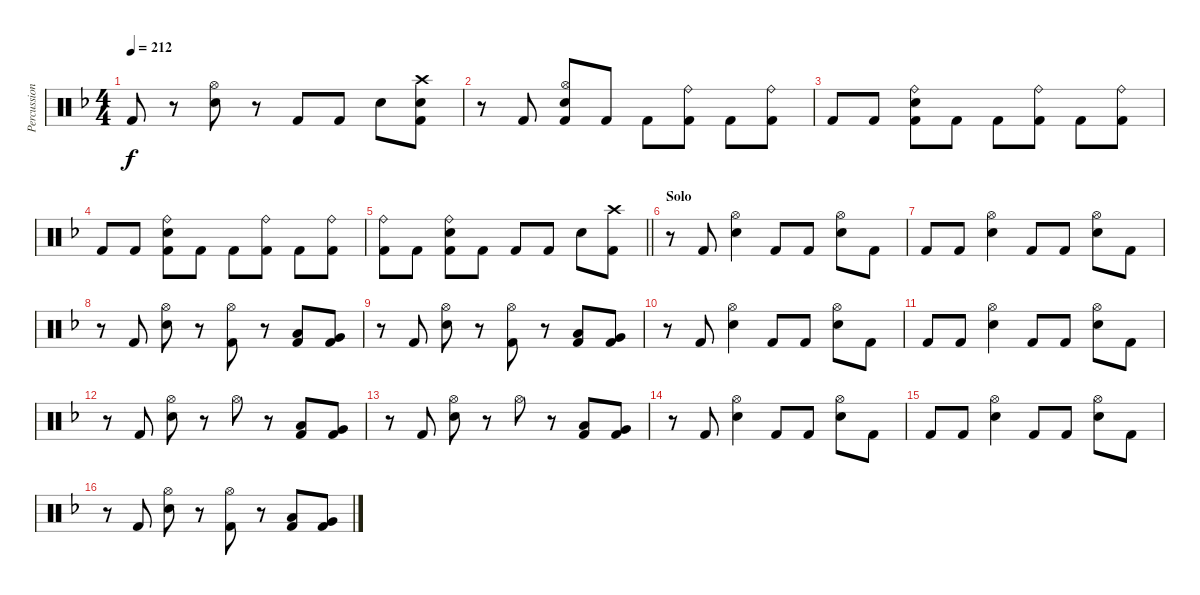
\track ("Percussion" "Percussion") {instrument percussion}
\staff {score}
\articulation defaults
\ts (4 4)
\tempo 212
\clef neutral
\ks dminor "Kick (hit) 2".8{dy f}
r.8 ("Hi-Hat (open)" "Electric Snare (hit)").8 r.8 "Kick (hit) 2".8 "Kick (hit) 2".8 "Electric Snare (hit)".8 ("Crash high (hit)" "Electric Snare (hit)" "Kick (hit) 2").8 |
r.8 "Kick (hit) 2".8 ("Hi-Hat (open)" "Electric Snare (hit)" "Kick (hit) 2").8 "Kick (hit) 2".8 "Kick (hit) 2".8 ("Ride (bell)" "Kick (hit) 2").8 "Kick (hit) 2".8 ("Ride (bell)" "Kick (hit) 2").8 |
"Kick (hit) 2".8 "Kick (hit) 2".8 ("Ride (bell)" "Electric Snare (hit)" "Kick (hit) 2").8 "Kick (hit) 2".8 "Kick (hit) 2".8 ("Ride (bell)" "Kick (hit) 2").8 "Kick (hit) 2".8 ("Ride (bell)" "Kick (hit) 2").8 |
"Kick (hit) 2".8 "Kick (hit) 2".8 ("Ride (bell)" "Electric Snare (hit)" "Kick (hit) 2").8 "Kick (hit) 2".8 "Kick (hit) 2".8 ("Ride (bell)" "Kick (hit) 2").8 "Kick (hit) 2".8 ("Ride (bell)" "Kick (hit) 2").8 |
\barLineRight lightlight
("Ride (bell)" "Kick (hit) 2").8 "Kick (hit) 2".8 ("Ride (bell)" "Electric Snare (hit)" "Kick (hit) 2").8 "Kick (hit) 2".8 "Kick (hit) 2".8 "Kick (hit) 2".8 "Electric Snare (hit)".8 ("Crash high (hit)" "Kick (hit) 2").8 |
\section ("" "Solo")
r.8 "Kick (hit) 2".8 ("Hi-Hat (open)" "Electric Snare (hit)").4 "Kick (hit) 2".8 "Kick (hit) 2".8 ("Hi-Hat (open)" "Electric Snare (hit)").8 "Kick (hit) 2".8 |
"Kick (hit) 2".8 "Kick (hit) 2".8 ("Hi-Hat (open)" "Electric Snare (hit)").4 "Kick (hit) 2".8 "Kick (hit) 2".8 ("Hi-Hat (open)" "Electric Snare (hit)").8 "Kick (hit) 2".8 |
r.8 "Kick (hit) 2".8 ("Hi-Hat (open)" "Electric Snare (hit)").8 r.8 ("Hi-Hat (open)" "Kick (hit) 2").8 r.8 ("Low Tom (hit)" "Kick (hit) 2").8 ("Very Low Tom (hit)" "Kick (hit) 2").8 |
r.8 "Kick (hit) 2".8 ("Hi-Hat (open)" "Electric Snare (hit)").8 r.8 ("Hi-Hat (open)" "Kick (hit) 2").8 r.8 ("Low Tom (hit)" "Kick (hit) 2").8 ("Very Low Tom (hit)" "Kick (hit) 2").8 |
r.8 "Kick (hit) 2".8 ("Hi-Hat (open)" "Electric Snare (hit)").4 "Kick (hit) 2".8 "Kick (hit) 2".8 ("Hi-Hat (open)" "Electric Snare (hit)").8 "Kick (hit) 2".8 |
"Kick (hit) 2".8 "Kick (hit) 2".8 ("Hi-Hat (open)" "Electric Snare (hit)").4 "Kick (hit) 2".8 "Kick (hit) 2".8 ("Hi-Hat (open)" "Electric Snare (hit)").8 "Kick (hit) 2".8 |
r.8 "Kick (hit) 2".8 ("Hi-Hat (open)" "Electric Snare (hit)").8 r.8 "Hi-Hat (open)".8 r.8 ("Low Tom (hit)" "Kick (hit) 2").8 ("Very Low Tom (hit)" "Kick (hit) 2").8 |
r.8 "Kick (hit) 2".8 ("Hi-Hat (open)" "Electric Snare (hit)").8 r.8 "Hi-Hat (open)".8 r.8 ("Low Tom (hit)" "Kick (hit) 2").8 ("Very Low Tom (hit)" "Kick (hit) 2").8 |
r.8 "Kick (hit) 2".8 ("Hi-Hat (open)" "Electric Snare (hit)").4 "Kick (hit) 2".8 "Kick (hit) 2".8 ("Hi-Hat (open)" "Electric Snare (hit)").8 "Kick (hit) 2".8 |
"Kick (hit) 2".8 "Kick (hit) 2".8 ("Hi-Hat (open)" "Electric Snare (hit)").4 "Kick (hit) 2".8 "Kick (hit) 2".8 ("Hi-Hat (open)" "Electric Snare (hit)").8 "Kick (hit) 2".8 |
r.8 "Kick (hit) 2".8 ("Hi-Hat (open)" "Electric Snare (hit)").8 r.8 ("Hi-Hat (open)" "Kick (hit) 2").8 r.8 ("Low Tom (hit)" "Kick (hit) 2").8 ("Very Low Tom (hit)" "Kick (hit) 2").8
